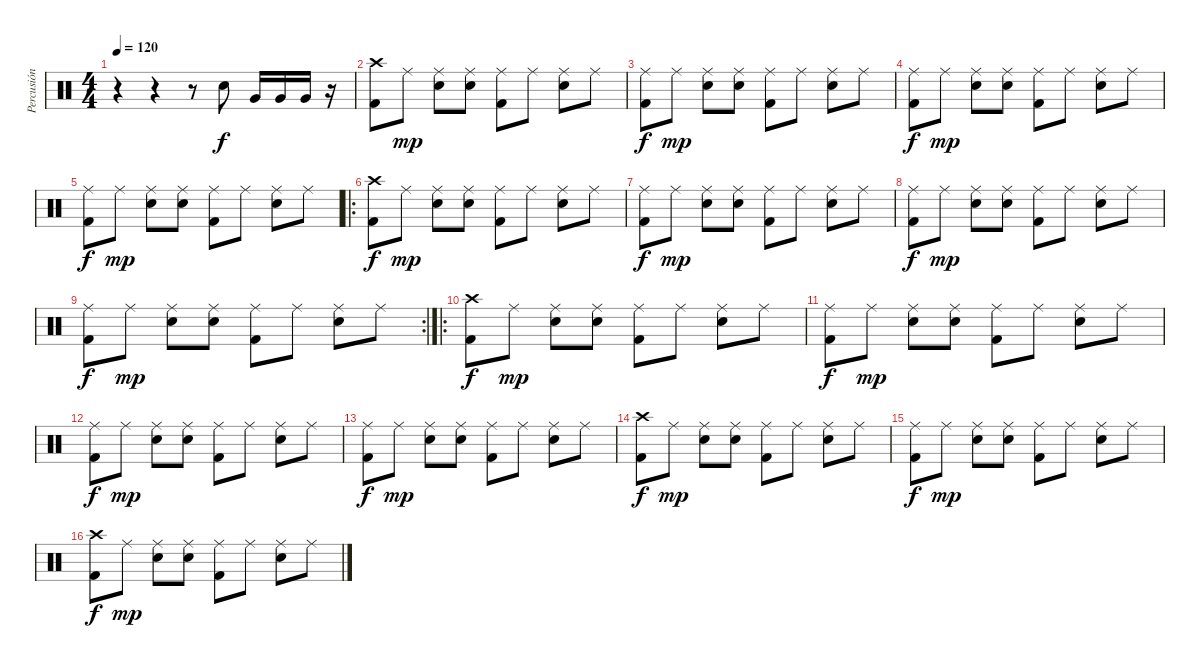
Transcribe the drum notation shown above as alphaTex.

\track ("Percusión" "Percusión") {instrument percussion}
\staff {score}
\articulation defaults
\ts (4 4)
\tempo 120
\clef neutral
\ks c
r.4{dy f} r.4 r.8 "Electric Snare (hit)".8 "Very Low Tom (hit)".16 "Very Low Tom (hit)".16 "Very Low Tom (hit)".16 r.16 |
("Crash high (hit)" "Kick (hit) 2").8 "Ride (middle)".8{dy mp} ("Electric Snare (hit)" "Ride (middle)").8 ("Electric Snare (hit)" "Ride (middle)").8 ("Kick (hit) 2" "Ride (middle)").8 "Ride (middle)".8 ("Electric Snare (hit)" "Ride (middle)").8 "Ride (middle)".8 |
("Kick (hit) 2" "Ride (middle)").8{dy f} "Ride (middle)".8{dy mp} ("Electric Snare (hit)" "Ride (middle)").8 ("Electric Snare (hit)" "Ride (middle)").8 ("Kick (hit) 2" "Ride (middle)").8 "Ride (middle)".8 ("Electric Snare (hit)" "Ride (middle)").8 "Ride (middle)".8 |
("Kick (hit) 2" "Ride (middle)").8{dy f} "Ride (middle)".8{dy mp} ("Electric Snare (hit)" "Ride (middle)").8 ("Electric Snare (hit)" "Ride (middle)").8 ("Kick (hit) 2" "Ride (middle)").8 "Ride (middle)".8 ("Electric Snare (hit)" "Ride (middle)").8 "Ride (middle)".8 |
("Kick (hit) 2" "Ride (middle)").8{dy f} "Ride (middle)".8{dy mp} ("Electric Snare (hit)" "Ride (middle)").8 ("Electric Snare (hit)" "Ride (middle)").8 ("Kick (hit) 2" "Ride (middle)").8 "Ride (middle)".8 ("Electric Snare (hit)" "Ride (middle)").8 "Ride (middle)".8 |
\ro
("Kick (hit) 2" "Crash high (hit)").8{dy f} "Ride (middle)".8{dy mp} ("Electric Snare (hit)" "Ride (middle)").8 ("Electric Snare (hit)" "Ride (middle)").8 ("Kick (hit) 2" "Ride (middle)").8 "Ride (middle)".8 ("Electric Snare (hit)" "Ride (middle)").8 "Ride (middle)".8 |
("Kick (hit) 2" "Ride (middle)").8{dy f} "Ride (middle)".8{dy mp} ("Electric Snare (hit)" "Ride (middle)").8 ("Electric Snare (hit)" "Ride (middle)").8 ("Kick (hit) 2" "Ride (middle)").8 "Ride (middle)".8 ("Electric Snare (hit)" "Ride (middle)").8 "Ride (middle)".8 |
("Kick (hit) 2" "Ride (middle)").8{dy f} "Ride (middle)".8{dy mp} ("Electric Snare (hit)" "Ride (middle)").8 ("Electric Snare (hit)" "Ride (middle)").8 ("Kick (hit) 2" "Ride (middle)").8 "Ride (middle)".8 ("Electric Snare (hit)" "Ride (middle)").8 "Ride (middle)".8 |
\rc 2
("Kick (hit) 2" "Ride (middle)").8{dy f} "Ride (middle)".8{dy mp} ("Electric Snare (hit)" "Ride (middle)").8 ("Electric Snare (hit)" "Ride (middle)").8 ("Kick (hit) 2" "Ride (middle)").8 "Ride (middle)".8 ("Electric Snare (hit)" "Ride (middle)").8 "Ride (middle)".8 |
\ro
("Kick (hit) 2" "Crash high (hit)").8{dy f} "Ride (middle)".8{dy mp} ("Electric Snare (hit)" "Ride (middle)").8 ("Electric Snare (hit)" "Ride (middle)").8 ("Kick (hit) 2" "Ride (middle)").8 "Ride (middle)".8 ("Electric Snare (hit)" "Ride (middle)").8 "Ride (middle)".8 |
("Kick (hit) 2" "Ride (middle)").8{dy f} "Ride (middle)".8{dy mp} ("Electric Snare (hit)" "Ride (middle)").8 ("Electric Snare (hit)" "Ride (middle)").8 ("Kick (hit) 2" "Ride (middle)").8 "Ride (middle)".8 ("Electric Snare (hit)" "Ride (middle)").8 "Ride (middle)".8 |
("Kick (hit) 2" "Ride (middle)").8{dy f} "Ride (middle)".8{dy mp} ("Electric Snare (hit)" "Ride (middle)").8 ("Electric Snare (hit)" "Ride (middle)").8 ("Kick (hit) 2" "Ride (middle)").8 "Ride (middle)".8 ("Electric Snare (hit)" "Ride (middle)").8 "Ride (middle)".8 |
("Kick (hit) 2" "Ride (middle)").8{dy f} "Ride (middle)".8{dy mp} ("Electric Snare (hit)" "Ride (middle)").8 ("Electric Snare (hit)" "Ride (middle)").8 ("Kick (hit) 2" "Ride (middle)").8 "Ride (middle)".8 ("Electric Snare (hit)" "Ride (middle)").8 "Ride (middle)".8 |
("Kick (hit) 2" "Crash high (hit)").8{dy f} "Ride (middle)".8{dy mp} ("Electric Snare (hit)" "Ride (middle)").8 ("Electric Snare (hit)" "Ride (middle)").8 ("Kick (hit) 2" "Ride (middle)").8 "Ride (middle)".8 ("Electric Snare (hit)" "Ride (middle)").8 "Ride (middle)".8 |
("Kick (hit) 2" "Ride (middle)").8{dy f} "Ride (middle)".8{dy mp} ("Electric Snare (hit)" "Ride (middle)").8 ("Electric Snare (hit)" "Ride (middle)").8 ("Kick (hit) 2" "Ride (middle)").8 "Ride (middle)".8 ("Electric Snare (hit)" "Ride (middle)").8 "Ride (middle)".8 |
("Kick (hit) 2" "Crash high (hit)").8{dy f} "Ride (middle)".8{dy mp} ("Electric Snare (hit)" "Ride (middle)").8 ("Electric Snare (hit)" "Ride (middle)").8 ("Kick (hit) 2" "Ride (middle)").8 "Ride (middle)".8 ("Electric Snare (hit)" "Ride (middle)").8 "Ride (middle)".8
